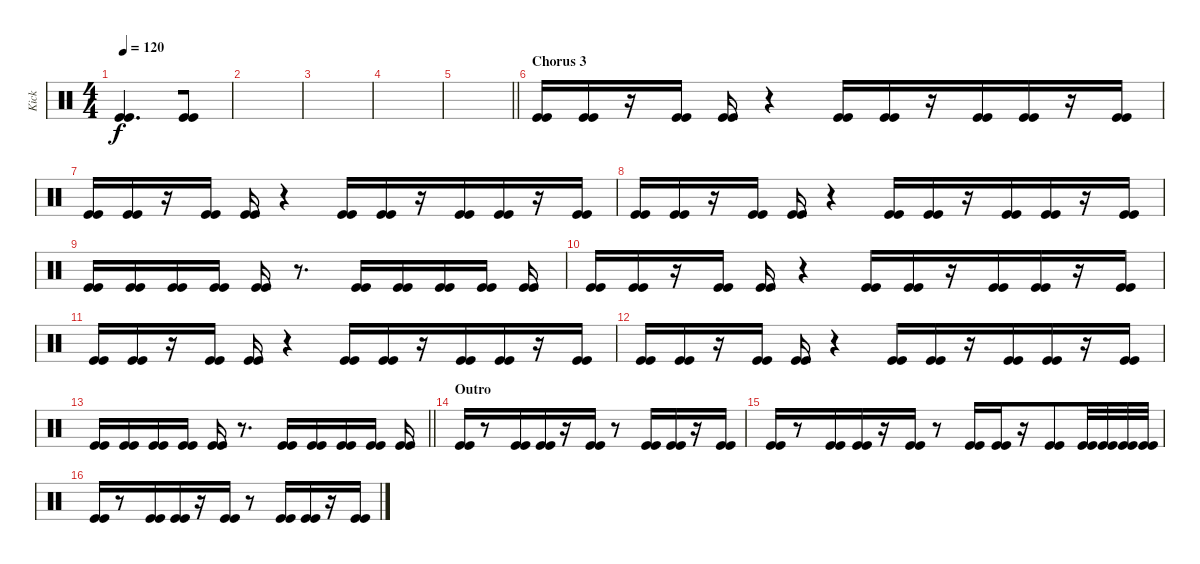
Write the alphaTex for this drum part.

\track ("Kick" "Kick") {instrument percussion}
\staff {score}
\articulation defaults
\ts (4 4)
\tempo 120
\clef neutral
\ks c
("Kick (hit)" "Kick (hit)").4{d dy f beam merge} ("Kick (hit)" "Kick (hit)").8 |
|
|
|
\barLineRight lightlight
|
\section ("" "Chorus 3")
("Kick (hit)" "Kick (hit)").16 ("Kick (hit)" "Kick (hit)").16 r.16 ("Kick (hit)" "Kick (hit)").16 ("Kick (hit)" "Kick (hit)").16 r.4{beam merge} ("Kick (hit)" "Kick (hit)").16 ("Kick (hit)" "Kick (hit)").16{beam merge} r.16{beam merge} ("Kick (hit)" "Kick (hit)").16 ("Kick (hit)" "Kick (hit)").16{beam merge} r.16 ("Kick (hit)" "Kick (hit)").16 |
("Kick (hit)" "Kick (hit)").16 ("Kick (hit)" "Kick (hit)").16 r.16 ("Kick (hit)" "Kick (hit)").16 ("Kick (hit)" "Kick (hit)").16 r.4{beam merge} ("Kick (hit)" "Kick (hit)").16 ("Kick (hit)" "Kick (hit)").16{beam merge} r.16{beam merge} ("Kick (hit)" "Kick (hit)").16 ("Kick (hit)" "Kick (hit)").16{beam merge} r.16 ("Kick (hit)" "Kick (hit)").16 |
("Kick (hit)" "Kick (hit)").16 ("Kick (hit)" "Kick (hit)").16 r.16 ("Kick (hit)" "Kick (hit)").16 ("Kick (hit)" "Kick (hit)").16 r.4{beam merge} ("Kick (hit)" "Kick (hit)").16 ("Kick (hit)" "Kick (hit)").16{beam merge} r.16{beam merge} ("Kick (hit)" "Kick (hit)").16 ("Kick (hit)" "Kick (hit)").16{beam merge} r.16 ("Kick (hit)" "Kick (hit)").16 |
("Kick (hit)" "Kick (hit)").16 ("Kick (hit)" "Kick (hit)").16 ("Kick (hit)" "Kick (hit)").16 ("Kick (hit)" "Kick (hit)").16 ("Kick (hit)" "Kick (hit)").16 r.8{d beam merge} ("Kick (hit)" "Kick (hit)").16 ("Kick (hit)" "Kick (hit)").16{beam merge} ("Kick (hit)" "Kick (hit)").16{beam merge} ("Kick (hit)" "Kick (hit)").16 ("Kick (hit)" "Kick (hit)").16 |
("Kick (hit)" "Kick (hit)").16 ("Kick (hit)" "Kick (hit)").16 r.16 ("Kick (hit)" "Kick (hit)").16 ("Kick (hit)" "Kick (hit)").16 r.4{beam merge} ("Kick (hit)" "Kick (hit)").16 ("Kick (hit)" "Kick (hit)").16{beam merge} r.16{beam merge} ("Kick (hit)" "Kick (hit)").16 ("Kick (hit)" "Kick (hit)").16{beam merge} r.16 ("Kick (hit)" "Kick (hit)").16 |
("Kick (hit)" "Kick (hit)").16 ("Kick (hit)" "Kick (hit)").16 r.16 ("Kick (hit)" "Kick (hit)").16 ("Kick (hit)" "Kick (hit)").16 r.4{beam merge} ("Kick (hit)" "Kick (hit)").16 ("Kick (hit)" "Kick (hit)").16{beam merge} r.16{beam merge} ("Kick (hit)" "Kick (hit)").16 ("Kick (hit)" "Kick (hit)").16{beam merge} r.16 ("Kick (hit)" "Kick (hit)").16 |
("Kick (hit)" "Kick (hit)").16 ("Kick (hit)" "Kick (hit)").16 r.16 ("Kick (hit)" "Kick (hit)").16 ("Kick (hit)" "Kick (hit)").16 r.4{beam merge} ("Kick (hit)" "Kick (hit)").16 ("Kick (hit)" "Kick (hit)").16{beam merge} r.16{beam merge} ("Kick (hit)" "Kick (hit)").16 ("Kick (hit)" "Kick (hit)").16{beam merge} r.16 ("Kick (hit)" "Kick (hit)").16 |
\barLineRight lightlight
("Kick (hit)" "Kick (hit)").16 ("Kick (hit)" "Kick (hit)").16 ("Kick (hit)" "Kick (hit)").16 ("Kick (hit)" "Kick (hit)").16 ("Kick (hit)" "Kick (hit)").16 r.8{d beam merge} ("Kick (hit)" "Kick (hit)").16 ("Kick (hit)" "Kick (hit)").16{beam merge} ("Kick (hit)" "Kick (hit)").16{beam merge} ("Kick (hit)" "Kick (hit)").16 ("Kick (hit)" "Kick (hit)").16 |
\section ("" "Outro")
("Kick (hit)" "Kick (hit)").16{beam merge} r.8{beam merge} ("Kick (hit)" "Kick (hit)").16{beam merge} ("Kick (hit)" "Kick (hit)").16 r.16{beam merge} ("Kick (hit)" "Kick (hit)").16 r.8 ("Kick (hit)" "Kick (hit)").16 ("Kick (hit)" "Kick (hit)").16{beam merge} r.16 ("Kick (hit)" "Kick (hit)").16 |
("Kick (hit)" "Kick (hit)").16{beam merge} r.8{beam merge} ("Kick (hit)" "Kick (hit)").16{beam merge} ("Kick (hit)" "Kick (hit)").16 r.16{beam merge} ("Kick (hit)" "Kick (hit)").16 r.8 ("Kick (hit)" "Kick (hit)").16 ("Kick (hit)" "Kick (hit)").16{beam merge} r.16 ("Kick (hit)" "Kick (hit)").8 ("Kick (hit)" "Kick (hit)").32 ("Kick (hit)" "Kick (hit)").32 ("Kick (hit)" "Kick (hit)").32 ("Kick (hit)" "Kick (hit)").32 |
("Kick (hit)" "Kick (hit)").16{beam merge} r.8{beam merge} ("Kick (hit)" "Kick (hit)").16{beam merge} ("Kick (hit)" "Kick (hit)").16 r.16{beam merge} ("Kick (hit)" "Kick (hit)").16 r.8 ("Kick (hit)" "Kick (hit)").16 ("Kick (hit)" "Kick (hit)").16{beam merge} r.16 ("Kick (hit)" "Kick (hit)").16
